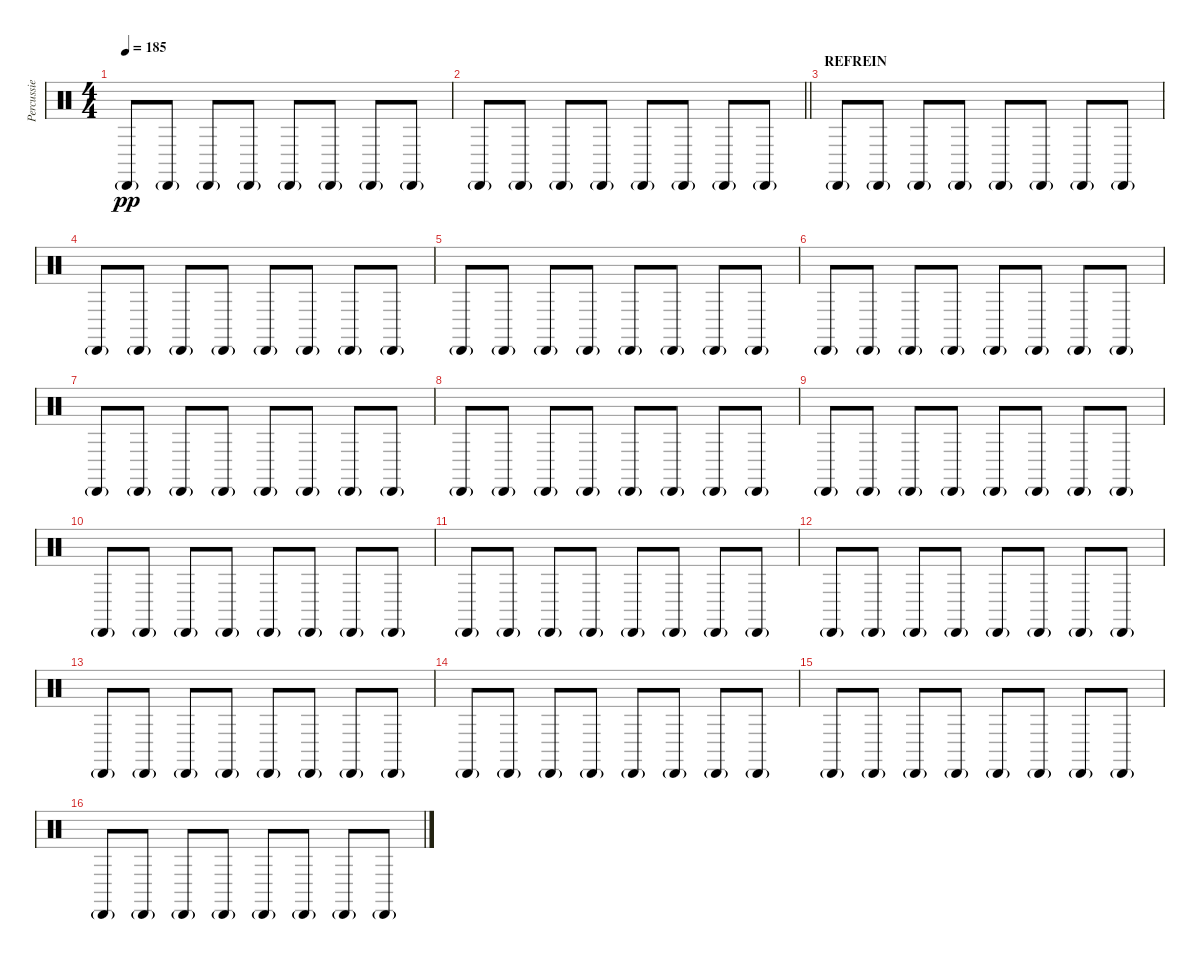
\track ("Percussie" "Percussie") {instrument percussion}
\staff {score}
\articulation defaults
\ts (4 4)
\tempo 185
\clef neutral
\ks c "Cabasa (hit)"{g}.8{dy pp} "Cabasa (hit)"{g}.8 "Cabasa (hit)"{g}.8 "Cabasa (hit)"{g}.8 "Cabasa (hit)"{g}.8 "Cabasa (hit)"{g}.8 "Cabasa (hit)"{g}.8 "Cabasa (hit)"{g}.8
|
\barLineRight lightlight "Cabasa (hit)"{g}.8 "Cabasa (hit)"{g}.8 "Cabasa (hit)"{g}.8 "Cabasa (hit)"{g}.8 "Cabasa (hit)"{g}.8 "Cabasa (hit)"{g}.8 "Cabasa (hit)"{g}.8 "Cabasa (hit)"{g}.8
|
\section ("" "REFREIN")
"Cabasa (hit)"{g}.8 "Cabasa (hit)"{g}.8 "Cabasa (hit)"{g}.8 "Cabasa (hit)"{g}.8 "Cabasa (hit)"{g}.8 "Cabasa (hit)"{g}.8 "Cabasa (hit)"{g}.8 "Cabasa (hit)"{g}.8 |
"Cabasa (hit)"{g}.8 "Cabasa (hit)"{g}.8 "Cabasa (hit)"{g}.8 "Cabasa (hit)"{g}.8 "Cabasa (hit)"{g}.8 "Cabasa (hit)"{g}.8 "Cabasa (hit)"{g}.8 "Cabasa (hit)"{g}.8 |
"Cabasa (hit)"{g}.8 "Cabasa (hit)"{g}.8 "Cabasa (hit)"{g}.8 "Cabasa (hit)"{g}.8 "Cabasa (hit)"{g}.8 "Cabasa (hit)"{g}.8 "Cabasa (hit)"{g}.8 "Cabasa (hit)"{g}.8 |
"Cabasa (hit)"{g}.8 "Cabasa (hit)"{g}.8 "Cabasa (hit)"{g}.8 "Cabasa (hit)"{g}.8 "Cabasa (hit)"{g}.8 "Cabasa (hit)"{g}.8 "Cabasa (hit)"{g}.8 "Cabasa (hit)"{g}.8 |
"Cabasa (hit)"{g}.8 "Cabasa (hit)"{g}.8 "Cabasa (hit)"{g}.8 "Cabasa (hit)"{g}.8 "Cabasa (hit)"{g}.8 "Cabasa (hit)"{g}.8 "Cabasa (hit)"{g}.8 "Cabasa (hit)"{g}.8 |
"Cabasa (hit)"{g}.8 "Cabasa (hit)"{g}.8 "Cabasa (hit)"{g}.8 "Cabasa (hit)"{g}.8 "Cabasa (hit)"{g}.8 "Cabasa (hit)"{g}.8 "Cabasa (hit)"{g}.8 "Cabasa (hit)"{g}.8 |
"Cabasa (hit)"{g}.8 "Cabasa (hit)"{g}.8 "Cabasa (hit)"{g}.8 "Cabasa (hit)"{g}.8 "Cabasa (hit)"{g}.8 "Cabasa (hit)"{g}.8 "Cabasa (hit)"{g}.8 "Cabasa (hit)"{g}.8 |
"Cabasa (hit)"{g}.8 "Cabasa (hit)"{g}.8 "Cabasa (hit)"{g}.8 "Cabasa (hit)"{g}.8 "Cabasa (hit)"{g}.8 "Cabasa (hit)"{g}.8 "Cabasa (hit)"{g}.8 "Cabasa (hit)"{g}.8 |
"Cabasa (hit)"{g}.8 "Cabasa (hit)"{g}.8 "Cabasa (hit)"{g}.8 "Cabasa (hit)"{g}.8 "Cabasa (hit)"{g}.8 "Cabasa (hit)"{g}.8 "Cabasa (hit)"{g}.8 "Cabasa (hit)"{g}.8 |
"Cabasa (hit)"{g}.8 "Cabasa (hit)"{g}.8 "Cabasa (hit)"{g}.8 "Cabasa (hit)"{g}.8 "Cabasa (hit)"{g}.8 "Cabasa (hit)"{g}.8 "Cabasa (hit)"{g}.8 "Cabasa (hit)"{g}.8 |
"Cabasa (hit)"{g}.8 "Cabasa (hit)"{g}.8 "Cabasa (hit)"{g}.8 "Cabasa (hit)"{g}.8 "Cabasa (hit)"{g}.8 "Cabasa (hit)"{g}.8 "Cabasa (hit)"{g}.8 "Cabasa (hit)"{g}.8 |
"Cabasa (hit)"{g}.8 "Cabasa (hit)"{g}.8 "Cabasa (hit)"{g}.8 "Cabasa (hit)"{g}.8 "Cabasa (hit)"{g}.8 "Cabasa (hit)"{g}.8 "Cabasa (hit)"{g}.8 "Cabasa (hit)"{g}.8 |
"Cabasa (hit)"{g}.8 "Cabasa (hit)"{g}.8 "Cabasa (hit)"{g}.8 "Cabasa (hit)"{g}.8 "Cabasa (hit)"{g}.8 "Cabasa (hit)"{g}.8 "Cabasa (hit)"{g}.8 "Cabasa (hit)"{g}.8 |
"Cabasa (hit)"{g}.8 "Cabasa (hit)"{g}.8 "Cabasa (hit)"{g}.8 "Cabasa (hit)"{g}.8 "Cabasa (hit)"{g}.8 "Cabasa (hit)"{g}.8 "Cabasa (hit)"{g}.8 "Cabasa (hit)"{g}.8
